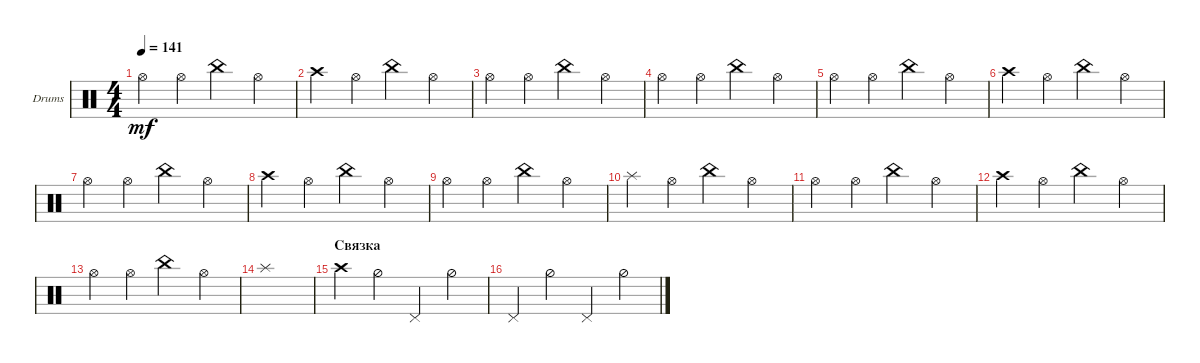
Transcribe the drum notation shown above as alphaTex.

\defaultSystemsLayout 4
\bracketExtendMode groupsimilarinstruments
\firstSystemTrackNameOrientation horizontal
\otherSystemsTrackNameOrientation horizontal
\track ("Cymbol" "Drums") {instrument percussion}
\staff {score}
\articulation defaults
\ts (4 4)
\tempo 141
\clef neutral
\scale
0.333333
\ks c "Hi-Hat (open)".4{dy mf} "Hi-Hat (open)".4 "China (hit)".4 "Hi-Hat (open)".4
|
\scale
0.333333 "Crash high (hit)".4 "Hi-Hat (open)".4 "China (hit)".4 "Hi-Hat (open)".4 |
\scale
0.333333 "Hi-Hat (open)".4 "Hi-Hat (open)".4 "China (hit)".4 "Hi-Hat (open)".4 |
\scale
0.333333 "Hi-Hat (open)".4 "Hi-Hat (open)".4 "China (hit)".4 "Hi-Hat (open)".4 |
\scale
0.333333 "Hi-Hat (open)".4 "Hi-Hat (open)".4 "China (hit)".4 "Hi-Hat (open)".4 |
\scale
0.333333 "Crash high (hit)".4 "Hi-Hat (open)".4 "China (hit)".4 "Hi-Hat (open)".4 |
\scale
0.333333 "Hi-Hat (open)".4 "Hi-Hat (open)".4 "China (hit)".4 "Hi-Hat (open)".4 |
\scale
0.333333 "Crash high (hit)".4 "Hi-Hat (open)".4 "China (hit)".4 "Hi-Hat (open)".4 |
\scale
0.333333 "Hi-Hat (open)".4 "Hi-Hat (open)".4 "China (hit)".4 "Hi-Hat (open)".4 |
\scale
0.333333 "Splash (hit)".4 "Hi-Hat (open)".4 "China (hit)".4 "Hi-Hat (open)".4 |
\scale
0.333333 "Hi-Hat (open)".4 "Hi-Hat (open)".4 "China (hit)".4 "Hi-Hat (open)".4 |
\scale
0.333333 "Crash high (hit)".4 "Hi-Hat (open)".4 "China (hit)".4 "Hi-Hat (open)".4 |
\scale
0.333333 "Hi-Hat (open)".4 "Hi-Hat (open)".4 "China (hit)".4 "Hi-Hat (open)".4 |
\scale
0.333333 "Splash (hit)".1 |
\section ("" "Связка")
\scale
0.333333 "Crash high (hit)".4 "Hi-Hat (half)".4 "Pedal Hi-Hat (hit)".4 "Hi-Hat (half)".4 |
\scale
0.333333 "Pedal Hi-Hat (hit)".4 "Hi-Hat (half)".4 "Pedal Hi-Hat (hit)".4 "Hi-Hat (half)".4
